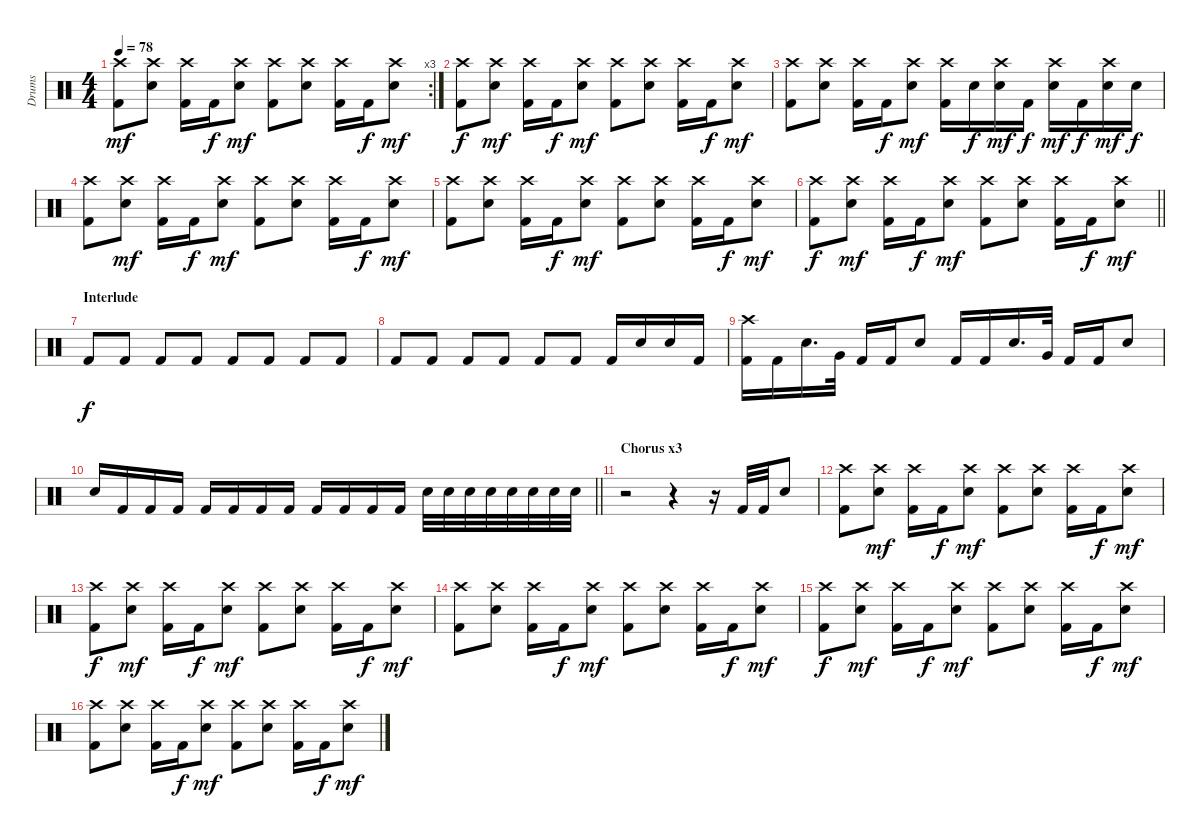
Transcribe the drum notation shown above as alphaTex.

\track ("Drums" "Drums") {instrument percussion}
\staff {score}
\articulation defaults
\rc 3
\ts (4 4)
\tempo 78
\clef neutral
\ks c
("Crash high (hit)" "Kick (hit) 2").8{dy mf} ("Crash high (hit)" "Electric Snare (hit)").8 ("Crash high (hit)" "Kick (hit) 2").16 "Kick (hit) 2".16{dy f} ("Crash high (hit)" "Electric Snare (hit)").8{dy mf} ("Crash high (hit)" "Kick (hit) 2").8 ("Crash high (hit)" "Electric Snare (hit)").8 ("Crash high (hit)" "Kick (hit) 2").16 "Kick (hit) 2".16{dy f} ("Crash high (hit)" "Electric Snare (hit)").8{dy mf} |
("Crash high (hit)" "Kick (hit) 2").8{dy f} ("Crash high (hit)" "Electric Snare (hit)").8{dy mf} ("Crash high (hit)" "Kick (hit) 2").16 "Kick (hit) 2".16{dy f} ("Crash high (hit)" "Electric Snare (hit)").8{dy mf} ("Crash high (hit)" "Kick (hit) 2").8 ("Crash high (hit)" "Electric Snare (hit)").8 ("Crash high (hit)" "Kick (hit) 2").16 "Kick (hit) 2".16{dy f} ("Crash high (hit)" "Electric Snare (hit)").8{dy mf} |
("Crash high (hit)" "Kick (hit) 2").8 ("Crash high (hit)" "Electric Snare (hit)").8 ("Crash high (hit)" "Kick (hit) 2").16 "Kick (hit) 2".16{dy f} ("Crash high (hit)" "Electric Snare (hit)").8{dy mf} ("Crash high (hit)" "Kick (hit) 2").16 "Electric Snare (hit)".16{dy f} ("Crash high (hit)" "Electric Snare (hit)").16{dy mf} "Kick (hit) 2".16{dy f} ("Crash high (hit)" "Electric Snare (hit)").16{dy mf} "Kick (hit) 2".16{dy f} ("Crash high (hit)" "Electric Snare (hit)").16{dy mf} "Electric Snare (hit)".16{dy f} |
("Crash high (hit)" "Kick (hit) 2").8 ("Crash high (hit)" "Electric Snare (hit)").8{dy mf} ("Crash high (hit)" "Kick (hit) 2").16 "Kick (hit) 2".16{dy f} ("Crash high (hit)" "Electric Snare (hit)").8{dy mf} ("Crash high (hit)" "Kick (hit) 2").8 ("Crash high (hit)" "Electric Snare (hit)").8 ("Crash high (hit)" "Kick (hit) 2").16 "Kick (hit) 2".16{dy f} ("Crash high (hit)" "Electric Snare (hit)").8{dy mf} |
("Crash high (hit)" "Kick (hit) 2").8 ("Crash high (hit)" "Electric Snare (hit)").8 ("Crash high (hit)" "Kick (hit) 2").16 "Kick (hit) 2".16{dy f} ("Crash high (hit)" "Electric Snare (hit)").8{dy mf} ("Crash high (hit)" "Kick (hit) 2").8 ("Crash high (hit)" "Electric Snare (hit)").8 ("Crash high (hit)" "Kick (hit) 2").16 "Kick (hit) 2".16{dy f} ("Crash high (hit)" "Electric Snare (hit)").8{dy mf} |
\barLineRight lightlight
("Crash high (hit)" "Kick (hit) 2").8{dy f} ("Crash high (hit)" "Electric Snare (hit)").8{dy mf} ("Crash high (hit)" "Kick (hit) 2").16 "Kick (hit) 2".16{dy f} ("Crash high (hit)" "Electric Snare (hit)").8{dy mf} ("Crash high (hit)" "Kick (hit) 2").8 ("Crash high (hit)" "Electric Snare (hit)").8 ("Crash high (hit)" "Kick (hit) 2").16 "Kick (hit) 2".16{dy f} ("Crash high (hit)" "Electric Snare (hit)").8{dy mf} |
\section ("" "Interlude")
"Kick (hit) 2".8{dy f} "Kick (hit) 2".8 "Kick (hit) 2".8 "Kick (hit) 2".8 "Kick (hit) 2".8 "Kick (hit) 2".8 "Kick (hit) 2".8 "Kick (hit) 2".8 |
"Kick (hit) 2".8 "Kick (hit) 2".8 "Kick (hit) 2".8 "Kick (hit) 2".8 "Kick (hit) 2".8 "Kick (hit) 2".8 "Kick (hit) 2".16 "Electric Snare (hit)".16 "Electric Snare (hit)".16 "Kick (hit) 2".16 |
("Crash high (hit)" "Kick (hit) 2").16 "Kick (hit) 2".16 "Electric Snare (hit)".16{d} "Very Low Tom (hit)".32 "Kick (hit) 2".16 "Kick (hit) 2".16 "Electric Snare (hit)".8 "Kick (hit) 2".16 "Kick (hit) 2".16 "Electric Snare (hit)".16{d} "Very Low Tom (hit)".32 "Kick (hit) 2".16 "Kick (hit) 2".16 "Electric Snare (hit)".8 |
\barLineRight lightlight "Electric Snare (hit)".16 "Kick (hit) 2".16 "Kick (hit) 2".16 "Kick (hit) 2".16 "Kick (hit) 2".16 "Kick (hit) 2".16 "Kick (hit) 2".16 "Kick (hit) 2".16 "Kick (hit) 2".16 "Kick (hit) 2".16 "Kick (hit) 2".16 "Kick (hit) 2".16 "Electric Snare (hit)".32 "Electric Snare (hit)".32 "Electric Snare (hit)".32 "Electric Snare (hit)".32 "Electric Snare (hit)".32 "Electric Snare (hit)".32 "Electric Snare (hit)".32 "Electric Snare (hit)".32
|
\section ("" "Chorus x3")
r.2 r.4 r.16 "Kick (hit) 2".32 "Kick (hit) 2".32 "Electric Snare (hit)".8 |
("Crash high (hit)" "Kick (hit) 2").8 ("Crash high (hit)" "Electric Snare (hit)").8{dy mf} ("Crash high (hit)" "Kick (hit) 2").16 "Kick (hit) 2".16{dy f} ("Crash high (hit)" "Electric Snare (hit)").8{dy mf} ("Crash high (hit)" "Kick (hit) 2").8 ("Crash high (hit)" "Electric Snare (hit)").8 ("Crash high (hit)" "Kick (hit) 2").16 "Kick (hit) 2".16{dy f} ("Crash high (hit)" "Electric Snare (hit)").8{dy mf} |
("Crash high (hit)" "Kick (hit) 2").8{dy f} ("Crash high (hit)" "Electric Snare (hit)").8{dy mf} ("Crash high (hit)" "Kick (hit) 2").16 "Kick (hit) 2".16{dy f} ("Crash high (hit)" "Electric Snare (hit)").8{dy mf} ("Crash high (hit)" "Kick (hit) 2").8 ("Crash high (hit)" "Electric Snare (hit)").8 ("Crash high (hit)" "Kick (hit) 2").16 "Kick (hit) 2".16{dy f} ("Crash high (hit)" "Electric Snare (hit)").8{dy mf} |
("Crash high (hit)" "Kick (hit) 2").8 ("Crash high (hit)" "Electric Snare (hit)").8 ("Crash high (hit)" "Kick (hit) 2").16 "Kick (hit) 2".16{dy f} ("Crash high (hit)" "Electric Snare (hit)").8{dy mf} ("Crash high (hit)" "Kick (hit) 2").8 ("Crash high (hit)" "Electric Snare (hit)").8 ("Crash high (hit)" "Kick (hit) 2").16 "Kick (hit) 2".16{dy f} ("Crash high (hit)" "Electric Snare (hit)").8{dy mf} |
("Crash high (hit)" "Kick (hit) 2").8{dy f} ("Crash high (hit)" "Electric Snare (hit)").8{dy mf} ("Crash high (hit)" "Kick (hit) 2").16 "Kick (hit) 2".16{dy f} ("Crash high (hit)" "Electric Snare (hit)").8{dy mf} ("Crash high (hit)" "Kick (hit) 2").8 ("Crash high (hit)" "Electric Snare (hit)").8 ("Crash high (hit)" "Kick (hit) 2").16 "Kick (hit) 2".16{dy f} ("Crash high (hit)" "Electric Snare (hit)").8{dy mf} |
("Crash high (hit)" "Kick (hit) 2").8 ("Crash high (hit)" "Electric Snare (hit)").8 ("Crash high (hit)" "Kick (hit) 2").16 "Kick (hit) 2".16{dy f} ("Crash high (hit)" "Electric Snare (hit)").8{dy mf} ("Crash high (hit)" "Kick (hit) 2").8 ("Crash high (hit)" "Electric Snare (hit)").8 ("Crash high (hit)" "Kick (hit) 2").16 "Kick (hit) 2".16{dy f} ("Crash high (hit)" "Electric Snare (hit)").8{dy mf}
